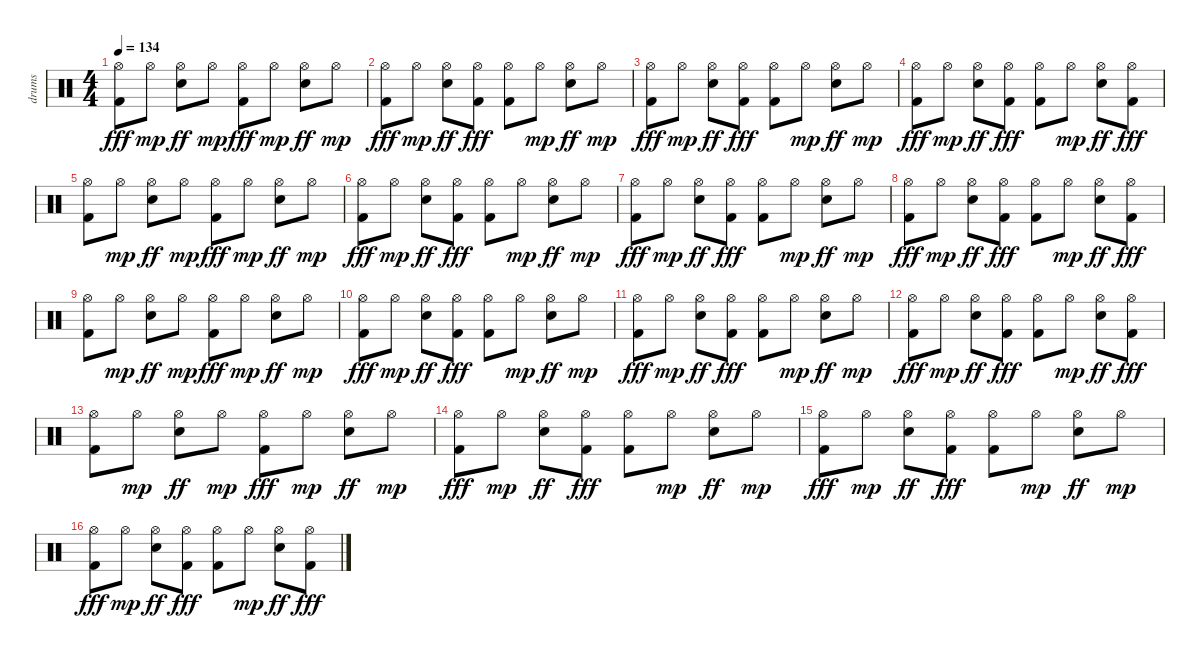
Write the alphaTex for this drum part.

\track ("drums" "drums") {instrument percussion}
\staff {score}
\articulation defaults
\ts (4 4)
\tempo 134
\clef neutral
\ks c
("Hi-Hat (open)" "Kick (hit) 2").8{dy fff} "Hi-Hat (open)".8{dy mp} ("Hi-Hat (open)" "Electric Snare (hit)").8{dy ff} "Hi-Hat (open)".8{dy mp} ("Hi-Hat (open)" "Kick (hit) 2").8{dy fff} "Hi-Hat (open)".8{dy mp} ("Hi-Hat (open)" "Electric Snare (hit)").8{dy ff} "Hi-Hat (open)".8{dy mp} |
("Hi-Hat (open)" "Kick (hit) 2").8{dy fff} "Hi-Hat (open)".8{dy mp} ("Hi-Hat (open)" "Electric Snare (hit)").8{dy ff} ("Hi-Hat (open)" "Kick (hit) 2").8{dy fff} ("Hi-Hat (open)" "Kick (hit) 2").8 "Hi-Hat (open)".8{dy mp} ("Hi-Hat (open)" "Electric Snare (hit)").8{dy ff} "Hi-Hat (open)".8{dy mp} |
("Hi-Hat (open)" "Kick (hit) 2").8{dy fff} "Hi-Hat (open)".8{dy mp} ("Hi-Hat (open)" "Electric Snare (hit)").8{dy ff} ("Hi-Hat (open)" "Kick (hit) 2").8{dy fff} ("Hi-Hat (open)" "Kick (hit) 2").8 "Hi-Hat (open)".8{dy mp} ("Hi-Hat (open)" "Electric Snare (hit)").8{dy ff} "Hi-Hat (open)".8{dy mp} |
("Hi-Hat (open)" "Kick (hit) 2").8{dy fff} "Hi-Hat (open)".8{dy mp} ("Hi-Hat (open)" "Electric Snare (hit)").8{dy ff} ("Hi-Hat (open)" "Kick (hit) 2").8{dy fff} ("Hi-Hat (open)" "Kick (hit) 2").8 "Hi-Hat (open)".8{dy mp} ("Hi-Hat (open)" "Electric Snare (hit)").8{dy ff} ("Hi-Hat (open)" "Kick (hit) 2").8{dy fff} |
("Hi-Hat (open)" "Kick (hit) 2").8 "Hi-Hat (open)".8{dy mp} ("Hi-Hat (open)" "Electric Snare (hit)").8{dy ff} "Hi-Hat (open)".8{dy mp} ("Hi-Hat (open)" "Kick (hit) 2").8{dy fff} "Hi-Hat (open)".8{dy mp} ("Hi-Hat (open)" "Electric Snare (hit)").8{dy ff} "Hi-Hat (open)".8{dy mp} |
("Hi-Hat (open)" "Kick (hit) 2").8{dy fff} "Hi-Hat (open)".8{dy mp} ("Hi-Hat (open)" "Electric Snare (hit)").8{dy ff} ("Hi-Hat (open)" "Kick (hit) 2").8{dy fff} ("Hi-Hat (open)" "Kick (hit) 2").8 "Hi-Hat (open)".8{dy mp} ("Hi-Hat (open)" "Electric Snare (hit)").8{dy ff} "Hi-Hat (open)".8{dy mp} |
("Hi-Hat (open)" "Kick (hit) 2").8{dy fff} "Hi-Hat (open)".8{dy mp} ("Hi-Hat (open)" "Electric Snare (hit)").8{dy ff} ("Hi-Hat (open)" "Kick (hit) 2").8{dy fff} ("Hi-Hat (open)" "Kick (hit) 2").8 "Hi-Hat (open)".8{dy mp} ("Hi-Hat (open)" "Electric Snare (hit)").8{dy ff} "Hi-Hat (open)".8{dy mp} |
("Hi-Hat (open)" "Kick (hit) 2").8{dy fff} "Hi-Hat (open)".8{dy mp} ("Hi-Hat (open)" "Electric Snare (hit)").8{dy ff} ("Hi-Hat (open)" "Kick (hit) 2").8{dy fff} ("Hi-Hat (open)" "Kick (hit) 2").8 "Hi-Hat (open)".8{dy mp} ("Hi-Hat (open)" "Electric Snare (hit)").8{dy ff} ("Hi-Hat (open)" "Kick (hit) 2").8{dy fff} |
("Hi-Hat (open)" "Kick (hit) 2").8 "Hi-Hat (open)".8{dy mp} ("Hi-Hat (open)" "Electric Snare (hit)").8{dy ff} "Hi-Hat (open)".8{dy mp} ("Hi-Hat (open)" "Kick (hit) 2").8{dy fff} "Hi-Hat (open)".8{dy mp} ("Hi-Hat (open)" "Electric Snare (hit)").8{dy ff} "Hi-Hat (open)".8{dy mp} |
("Hi-Hat (open)" "Kick (hit) 2").8{dy fff} "Hi-Hat (open)".8{dy mp} ("Hi-Hat (open)" "Electric Snare (hit)").8{dy ff} ("Hi-Hat (open)" "Kick (hit) 2").8{dy fff} ("Hi-Hat (open)" "Kick (hit) 2").8 "Hi-Hat (open)".8{dy mp} ("Hi-Hat (open)" "Electric Snare (hit)").8{dy ff} "Hi-Hat (open)".8{dy mp} |
("Hi-Hat (open)" "Kick (hit) 2").8{dy fff} "Hi-Hat (open)".8{dy mp} ("Hi-Hat (open)" "Electric Snare (hit)").8{dy ff} ("Hi-Hat (open)" "Kick (hit) 2").8{dy fff} ("Hi-Hat (open)" "Kick (hit) 2").8 "Hi-Hat (open)".8{dy mp} ("Hi-Hat (open)" "Electric Snare (hit)").8{dy ff} "Hi-Hat (open)".8{dy mp} |
("Hi-Hat (open)" "Kick (hit) 2").8{dy fff} "Hi-Hat (open)".8{dy mp} ("Hi-Hat (open)" "Electric Snare (hit)").8{dy ff} ("Hi-Hat (open)" "Kick (hit) 2").8{dy fff} ("Hi-Hat (open)" "Kick (hit) 2").8 "Hi-Hat (open)".8{dy mp} ("Hi-Hat (open)" "Electric Snare (hit)").8{dy ff} ("Hi-Hat (open)" "Kick (hit) 2").8{dy fff} |
("Hi-Hat (open)" "Kick (hit) 2").8 "Hi-Hat (open)".8{dy mp} ("Hi-Hat (open)" "Electric Snare (hit)").8{dy ff} "Hi-Hat (open)".8{dy mp} ("Hi-Hat (open)" "Kick (hit) 2").8{dy fff} "Hi-Hat (open)".8{dy mp} ("Hi-Hat (open)" "Electric Snare (hit)").8{dy ff} "Hi-Hat (open)".8{dy mp} |
("Hi-Hat (open)" "Kick (hit) 2").8{dy fff} "Hi-Hat (open)".8{dy mp} ("Hi-Hat (open)" "Electric Snare (hit)").8{dy ff} ("Hi-Hat (open)" "Kick (hit) 2").8{dy fff} ("Hi-Hat (open)" "Kick (hit) 2").8 "Hi-Hat (open)".8{dy mp} ("Hi-Hat (open)" "Electric Snare (hit)").8{dy ff} "Hi-Hat (open)".8{dy mp} |
("Hi-Hat (open)" "Kick (hit) 2").8{dy fff} "Hi-Hat (open)".8{dy mp} ("Hi-Hat (open)" "Electric Snare (hit)").8{dy ff} ("Hi-Hat (open)" "Kick (hit) 2").8{dy fff} ("Hi-Hat (open)" "Kick (hit) 2").8 "Hi-Hat (open)".8{dy mp} ("Hi-Hat (open)" "Electric Snare (hit)").8{dy ff} "Hi-Hat (open)".8{dy mp} |
("Hi-Hat (open)" "Kick (hit) 2").8{dy fff} "Hi-Hat (open)".8{dy mp} ("Hi-Hat (open)" "Electric Snare (hit)").8{dy ff} ("Hi-Hat (open)" "Kick (hit) 2").8{dy fff} ("Hi-Hat (open)" "Kick (hit) 2").8 "Hi-Hat (open)".8{dy mp} ("Hi-Hat (open)" "Electric Snare (hit)").8{dy ff} ("Hi-Hat (open)" "Kick (hit) 2").8{dy fff}
